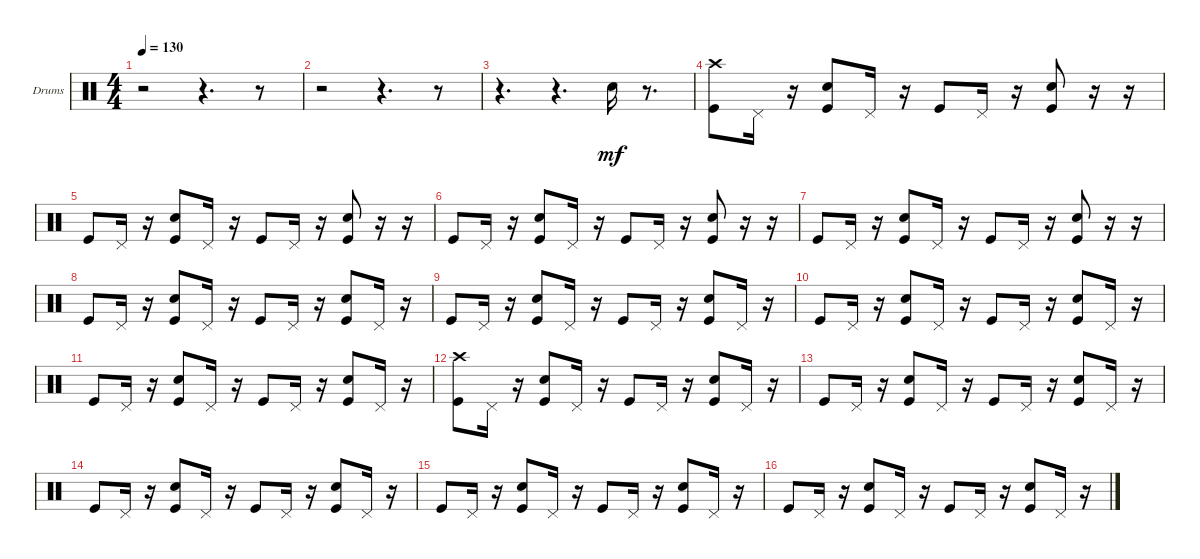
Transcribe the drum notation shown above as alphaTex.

\bracketExtendMode groupsimilarinstruments
\firstSystemTrackNameOrientation horizontal
\otherSystemsTrackNameOrientation horizontal
\track ("MIDI Drums" "Drums") {instrument percussion}
\staff {score}
\articulation defaults
\ts (4 4)
\tempo 130
\clef neutral
\ks c
r.2{dy mf} r.4{d} r.8 |
r.2 r.4{d} r.8 |
r.4{d} r.4{d} "Snare (hit) 2".16 r.8{d} |
("Crash high (hit)" "Kick (hit)").8 "Pedal Hi-Hat (hit)".16 r.16 ("Snare (hit) 2" "Kick (hit)").8 "Pedal Hi-Hat (hit)".16 r.16 "Kick (hit)".8 "Pedal Hi-Hat (hit)".16 r.16 ("Kick (hit)" "Snare (hit) 2").8 r.16 r.16 |
"Kick (hit)".8 "Pedal Hi-Hat (hit)".16 r.16 ("Snare (hit) 2" "Kick (hit)").8 "Pedal Hi-Hat (hit)".16 r.16 "Kick (hit)".8 "Pedal Hi-Hat (hit)".16 r.16 ("Snare (hit) 2" "Kick (hit)").8 r.16 r.16 |
"Kick (hit)".8 "Pedal Hi-Hat (hit)".16 r.16 ("Snare (hit) 2" "Kick (hit)").8 "Pedal Hi-Hat (hit)".16 r.16 "Kick (hit)".8 "Pedal Hi-Hat (hit)".16 r.16 ("Snare (hit) 2" "Kick (hit)").8 r.16 r.16 |
"Kick (hit)".8 "Pedal Hi-Hat (hit)".16 r.16 ("Snare (hit) 2" "Kick (hit)").8 "Pedal Hi-Hat (hit)".16 r.16 "Kick (hit)".8 "Pedal Hi-Hat (hit)".16 r.16 ("Snare (hit) 2" "Kick (hit)").8 r.16 r.16 |
"Kick (hit)".8 "Pedal Hi-Hat (hit)".16 r.16 ("Snare (hit) 2" "Kick (hit)").8 "Pedal Hi-Hat (hit)".16 r.16 "Kick (hit)".8 "Pedal Hi-Hat (hit)".16 r.16 ("Snare (hit) 2" "Kick (hit)").8 "Pedal Hi-Hat (hit)".16 r.16 |
"Kick (hit)".8 "Pedal Hi-Hat (hit)".16 r.16 ("Snare (hit) 2" "Kick (hit)").8 "Pedal Hi-Hat (hit)".16 r.16 "Kick (hit)".8 "Pedal Hi-Hat (hit)".16 r.16 ("Kick (hit)" "Snare (hit) 2").8 "Pedal Hi-Hat (hit)".16 r.16 |
"Kick (hit)".8 "Pedal Hi-Hat (hit)".16 r.16 ("Snare (hit) 2" "Kick (hit)").8 "Pedal Hi-Hat (hit)".16 r.16 "Kick (hit)".8 "Pedal Hi-Hat (hit)".16 r.16 ("Snare (hit) 2" "Kick (hit)").8 "Pedal Hi-Hat (hit)".16 r.16 |
"Kick (hit)".8 "Pedal Hi-Hat (hit)".16 r.16 ("Snare (hit) 2" "Kick (hit)").8 "Pedal Hi-Hat (hit)".16 r.16 "Kick (hit)".8 "Pedal Hi-Hat (hit)".16 r.16 ("Kick (hit)" "Snare (hit) 2").8 "Pedal Hi-Hat (hit)".16 r.16 |
("Crash high (hit)" "Kick (hit)").8 "Pedal Hi-Hat (hit)".16 r.16 ("Snare (hit) 2" "Kick (hit)").8 "Pedal Hi-Hat (hit)".16 r.16 "Kick (hit)".8 "Pedal Hi-Hat (hit)".16 r.16 ("Kick (hit)" "Snare (hit) 2").8 "Pedal Hi-Hat (hit)".16 r.16 |
"Kick (hit)".8 "Pedal Hi-Hat (hit)".16 r.16 ("Snare (hit) 2" "Kick (hit)").8 "Pedal Hi-Hat (hit)".16 r.16 "Kick (hit)".8 "Pedal Hi-Hat (hit)".16 r.16 ("Kick (hit)" "Snare (hit) 2").8 "Pedal Hi-Hat (hit)".16 r.16 |
"Kick (hit)".8 "Pedal Hi-Hat (hit)".16 r.16 ("Snare (hit) 2" "Kick (hit)").8 "Pedal Hi-Hat (hit)".16 r.16 "Kick (hit)".8 "Pedal Hi-Hat (hit)".16 r.16 ("Snare (hit) 2" "Kick (hit)").8 "Pedal Hi-Hat (hit)".16 r.16 |
"Kick (hit)".8 "Pedal Hi-Hat (hit)".16 r.16 ("Snare (hit) 2" "Kick (hit)").8 "Pedal Hi-Hat (hit)".16 r.16 "Kick (hit)".8 "Pedal Hi-Hat (hit)".16 r.16 ("Kick (hit)" "Snare (hit) 2").8 "Pedal Hi-Hat (hit)".16 r.16 |
"Kick (hit)".8 "Pedal Hi-Hat (hit)".16 r.16 ("Snare (hit) 2" "Kick (hit)").8 "Pedal Hi-Hat (hit)".16 r.16 "Kick (hit)".8 "Pedal Hi-Hat (hit)".16 r.16 ("Snare (hit) 2" "Kick (hit)").8 "Pedal Hi-Hat (hit)".16 r.16
